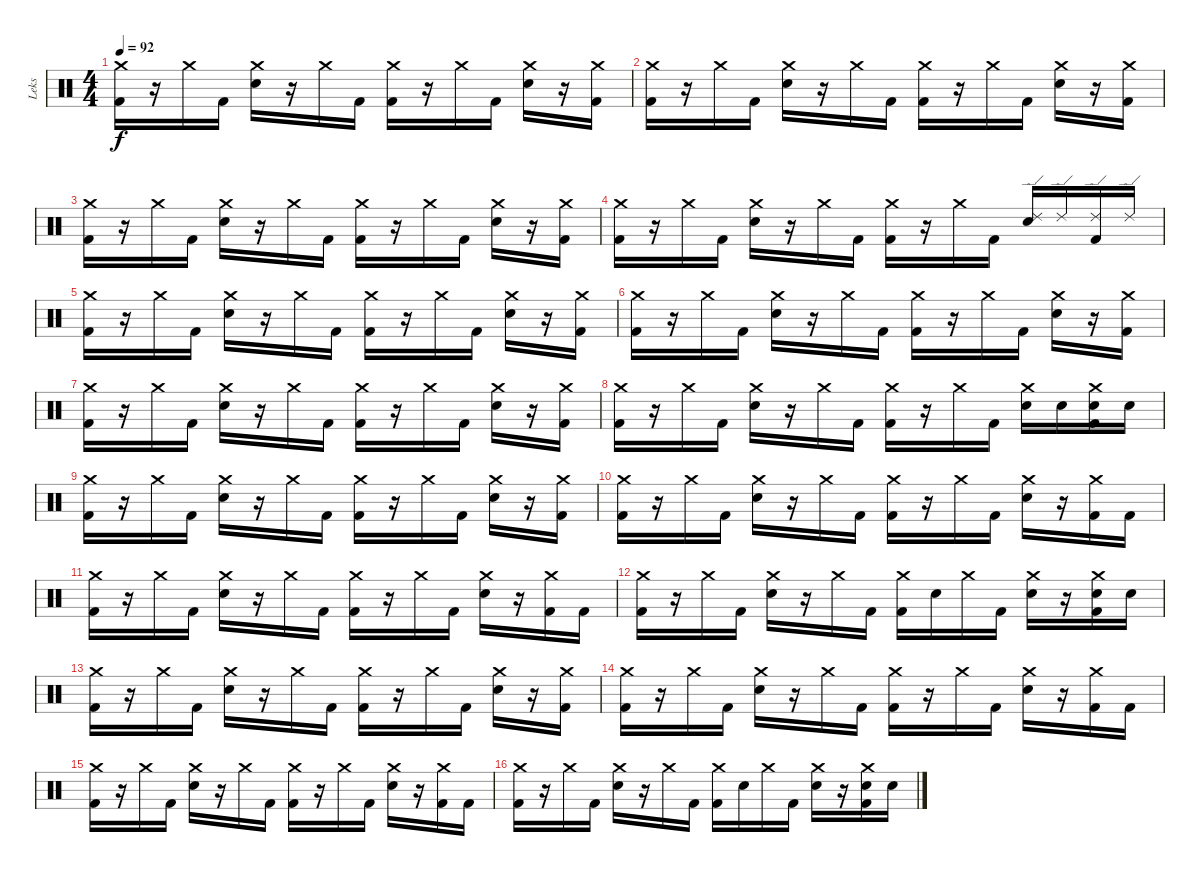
\track ("Leks" "Leks") {instrument percussion}
\staff {score}
\articulation defaults
\ts (4 4)
\tempo 92
\clef neutral
\ks c
("Crash medium (hit)" "Kick (hit) 2").16{dy f} r.16 "Crash medium (hit)".16 "Kick (hit) 2".16 ("Crash medium (hit)" "Snare (hit) 2").16 r.16 "Crash medium (hit)".16 "Kick (hit) 2".16 ("Crash medium (hit)" "Kick (hit) 2").16 r.16 "Crash medium (hit)".16 "Kick (hit) 2".16 ("Crash medium (hit)" "Snare (hit) 2").16 r.16 ("Crash medium (hit)" "Kick (hit) 2").16 |
("Crash medium (hit)" "Kick (hit) 2").16 r.16 "Crash medium (hit)".16 "Kick (hit) 2".16 ("Crash medium (hit)" "Snare (hit) 2").16 r.16 "Crash medium (hit)".16 "Kick (hit) 2".16 ("Crash medium (hit)" "Kick (hit) 2").16 r.16 "Crash medium (hit)".16 "Kick (hit) 2".16 ("Crash medium (hit)" "Snare (hit) 2").16 r.16 ("Crash medium (hit)" "Kick (hit) 2").16 |
("Crash medium (hit)" "Kick (hit) 2").16 r.16 "Crash medium (hit)".16 "Kick (hit) 2".16 ("Crash medium (hit)" "Snare (hit) 2").16 r.16 "Crash medium (hit)".16 "Kick (hit) 2".16 ("Crash medium (hit)" "Kick (hit) 2").16 r.16 "Crash medium (hit)".16 "Kick (hit) 2".16 ("Crash medium (hit)" "Snare (hit) 2").16 r.16 ("Crash medium (hit)" "Kick (hit) 2").16 |
("Crash medium (hit)" "Kick (hit) 2").16 r.16 "Crash medium (hit)".16 "Kick (hit) 2".16 ("Crash medium (hit)" "Snare (hit) 2").16 r.16 "Crash medium (hit)".16 "Kick (hit) 2".16 ("Crash medium (hit)" "Kick (hit) 2").16 r.16 "Crash medium (hit)".16 "Kick (hit) 2".16 ("Ride (edge) 2" "Snare (hit) 2").16 "Ride (edge) 2".16 ("Ride (edge) 2" "Kick (hit) 2").16 "Ride (edge) 2".16 |
("Crash medium (hit)" "Kick (hit) 2").16 r.16 "Crash medium (hit)".16 "Kick (hit) 2".16 ("Crash medium (hit)" "Snare (hit) 2").16 r.16 "Crash medium (hit)".16 "Kick (hit) 2".16 ("Crash medium (hit)" "Kick (hit) 2").16 r.16 "Crash medium (hit)".16 "Kick (hit) 2".16 ("Crash medium (hit)" "Snare (hit) 2").16 r.16 ("Crash medium (hit)" "Kick (hit) 2").16 |
("Crash medium (hit)" "Kick (hit) 2").16 r.16 "Crash medium (hit)".16 "Kick (hit) 2".16 ("Crash medium (hit)" "Snare (hit) 2").16 r.16 "Crash medium (hit)".16 "Kick (hit) 2".16 ("Crash medium (hit)" "Kick (hit) 2").16 r.16 "Crash medium (hit)".16 "Kick (hit) 2".16 ("Crash medium (hit)" "Snare (hit) 2").16 r.16 ("Crash medium (hit)" "Kick (hit) 2").16 |
("Crash medium (hit)" "Kick (hit) 2").16 r.16 "Crash medium (hit)".16 "Kick (hit) 2".16 ("Crash medium (hit)" "Snare (hit) 2").16 r.16 "Crash medium (hit)".16 "Kick (hit) 2".16 ("Crash medium (hit)" "Kick (hit) 2").16 r.16 "Crash medium (hit)".16 "Kick (hit) 2".16 ("Crash medium (hit)" "Snare (hit) 2").16 r.16 ("Crash medium (hit)" "Kick (hit) 2").16 |
("Crash medium (hit)" "Kick (hit) 2").16 r.16 "Crash medium (hit)".16 "Kick (hit) 2".16 ("Crash medium (hit)" "Snare (hit) 2").16 r.16 "Crash medium (hit)".16 "Kick (hit) 2".16 ("Crash medium (hit)" "Kick (hit) 2").16 r.16 "Crash medium (hit)".16 "Kick (hit) 2".16 ("Crash medium (hit)" "Snare (hit) 2").16 "Snare (hit) 2".16 ("Crash medium (hit)" "Snare (hit) 2" "Kick (hit) 2").16 "Snare (hit) 2".16 |
("Crash medium (hit)" "Kick (hit) 2").16 r.16 "Crash medium (hit)".16 "Kick (hit) 2".16 ("Crash medium (hit)" "Snare (hit) 2").16 r.16 "Crash medium (hit)".16 "Kick (hit) 2".16 ("Crash medium (hit)" "Kick (hit) 2").16 r.16 "Crash medium (hit)".16 "Kick (hit) 2".16 ("Crash medium (hit)" "Snare (hit) 2").16 r.16 ("Crash medium (hit)" "Kick (hit) 2").16 |
("Crash medium (hit)" "Kick (hit) 2").16 r.16 "Crash medium (hit)".16 "Kick (hit) 2".16 ("Crash medium (hit)" "Snare (hit) 2").16 r.16 "Crash medium (hit)".16 "Kick (hit) 2".16 ("Crash medium (hit)" "Kick (hit) 2").16 r.16 "Crash medium (hit)".16 "Kick (hit) 2".16 ("Crash medium (hit)" "Snare (hit) 2").16 r.16 ("Crash medium (hit)" "Kick (hit) 2").16 "Kick (hit) 2".16 |
("Crash medium (hit)" "Kick (hit) 2").16 r.16 "Crash medium (hit)".16 "Kick (hit) 2".16 ("Crash medium (hit)" "Snare (hit) 2").16 r.16 "Crash medium (hit)".16 "Kick (hit) 2".16 ("Crash medium (hit)" "Kick (hit) 2").16 r.16 "Crash medium (hit)".16 "Kick (hit) 2".16 ("Crash medium (hit)" "Snare (hit) 2").16 r.16 ("Crash medium (hit)" "Kick (hit) 2").16 "Kick (hit) 2".16 |
("Crash medium (hit)" "Kick (hit) 2").16 r.16 "Crash medium (hit)".16 "Kick (hit) 2".16 ("Crash medium (hit)" "Snare (hit) 2").16 r.16 "Crash medium (hit)".16 "Kick (hit) 2".16 ("Crash medium (hit)" "Kick (hit) 2").16 "Snare (hit) 2".16 "Crash medium (hit)".16 "Kick (hit) 2".16 ("Crash medium (hit)" "Snare (hit) 2").16 r.16 ("Crash medium (hit)" "Snare (hit) 2" "Kick (hit) 2").16 "Snare (hit) 2".16 |
("Crash medium (hit)" "Kick (hit) 2").16 r.16 "Crash medium (hit)".16 "Kick (hit) 2".16 ("Crash medium (hit)" "Snare (hit) 2").16 r.16 "Crash medium (hit)".16 "Kick (hit) 2".16 ("Crash medium (hit)" "Kick (hit) 2").16 r.16 "Crash medium (hit)".16 "Kick (hit) 2".16 ("Crash medium (hit)" "Snare (hit) 2").16 r.16 ("Crash medium (hit)" "Kick (hit) 2").16 |
("Crash medium (hit)" "Kick (hit) 2").16 r.16 "Crash medium (hit)".16 "Kick (hit) 2".16 ("Crash medium (hit)" "Snare (hit) 2").16 r.16 "Crash medium (hit)".16 "Kick (hit) 2".16 ("Crash medium (hit)" "Kick (hit) 2").16 r.16 "Crash medium (hit)".16 "Kick (hit) 2".16 ("Crash medium (hit)" "Snare (hit) 2").16 r.16 ("Crash medium (hit)" "Kick (hit) 2").16 "Kick (hit) 2".16 |
("Crash medium (hit)" "Kick (hit) 2").16 r.16 "Crash medium (hit)".16 "Kick (hit) 2".16 ("Crash medium (hit)" "Snare (hit) 2").16 r.16 "Crash medium (hit)".16 "Kick (hit) 2".16 ("Crash medium (hit)" "Kick (hit) 2").16 r.16 "Crash medium (hit)".16 "Kick (hit) 2".16 ("Crash medium (hit)" "Snare (hit) 2").16 r.16 ("Crash medium (hit)" "Kick (hit) 2").16 "Kick (hit) 2".16 |
("Crash medium (hit)" "Kick (hit) 2").16 r.16 "Crash medium (hit)".16 "Kick (hit) 2".16 ("Crash medium (hit)" "Snare (hit) 2").16 r.16 "Crash medium (hit)".16 "Kick (hit) 2".16 ("Crash medium (hit)" "Kick (hit) 2").16 "Snare (hit) 2".16 "Crash medium (hit)".16 "Kick (hit) 2".16 ("Crash medium (hit)" "Snare (hit) 2").16 r.16 ("Crash medium (hit)" "Snare (hit) 2" "Kick (hit) 2").16 "Snare (hit) 2".16
